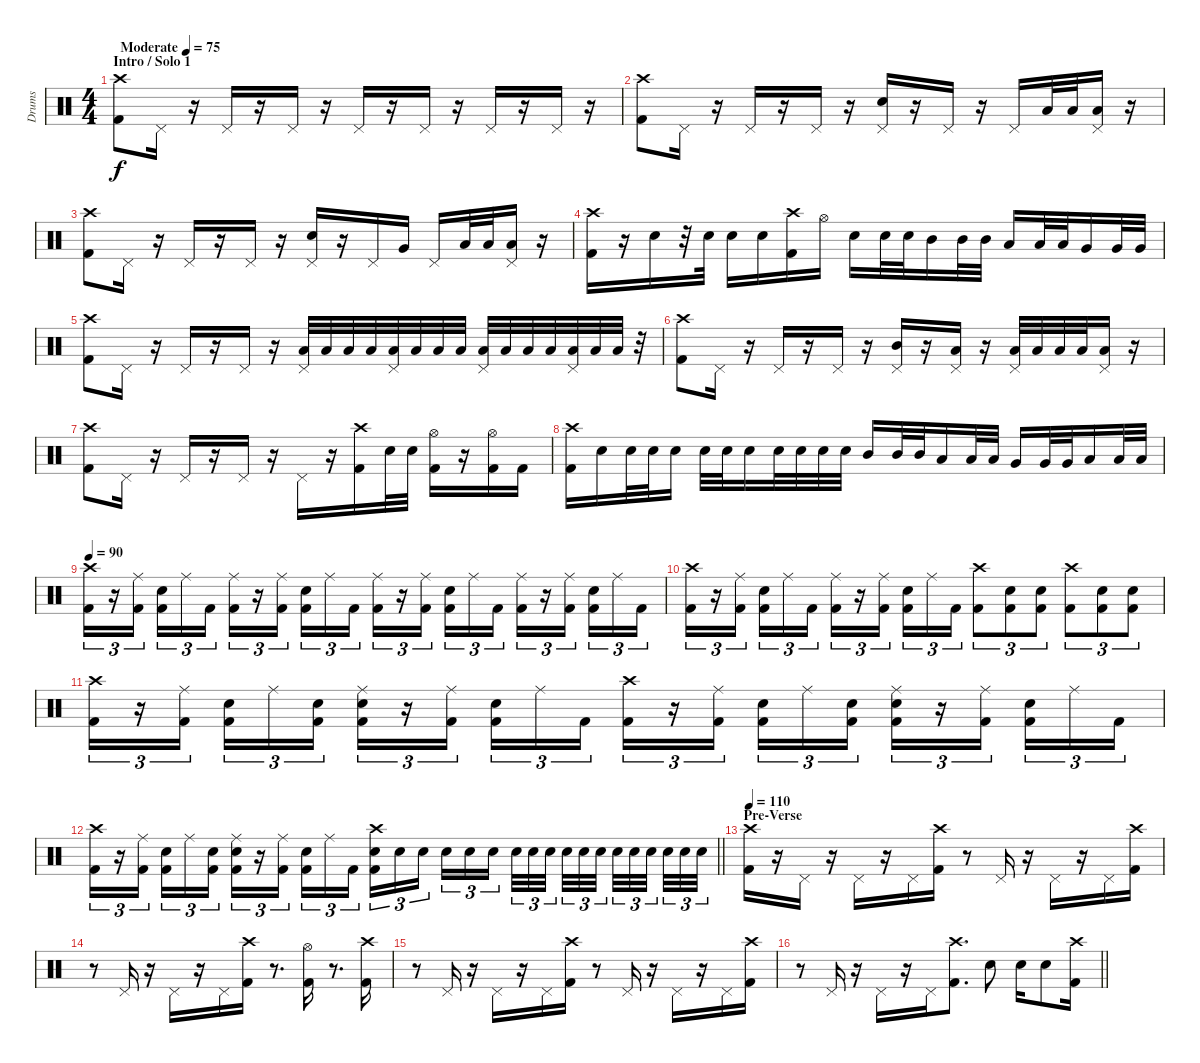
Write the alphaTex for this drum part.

\track ("Drums" "Drums") {instrument percussion}
\staff {score}
\articulation defaults
\ts (4 4)
\section ("" "Intro / Solo 1")
\tempo (75 "Moderate")
\clef neutral
\ks c
("Crash high (hit)" "Kick (hit) 2").8{dy f} "Pedal Hi-Hat (hit)".16 r.16 "Pedal Hi-Hat (hit)".16 r.16 "Pedal Hi-Hat (hit)".16 r.16 "Pedal Hi-Hat (hit)".16 r.16 "Pedal Hi-Hat (hit)".16 r.16 "Pedal Hi-Hat (hit)".16 r.16 "Pedal Hi-Hat (hit)".16 r.16 |
("Crash high (hit)" "Kick (hit) 2").8 "Pedal Hi-Hat (hit)".16 r.16 "Pedal Hi-Hat (hit)".16 r.16 "Pedal Hi-Hat (hit)".16 r.16 ("Pedal Hi-Hat (hit)" "Snare (hit) 2").16 r.16 "Pedal Hi-Hat (hit)".16 r.16 "Pedal Hi-Hat (hit)".16 "Low Tom (hit)".32 "Low Tom (hit)".32 ("Pedal Hi-Hat (hit)" "Low Tom (hit)").16 r.16 |
("Crash high (hit)" "Kick (hit) 2").8 "Pedal Hi-Hat (hit)".16 r.16 "Pedal Hi-Hat (hit)".16 r.16 "Pedal Hi-Hat (hit)".16 r.16 ("Pedal Hi-Hat (hit)" "Snare (hit) 2").16 r.16 "Pedal Hi-Hat (hit)".16 "Very Low Tom (hit)".16 "Pedal Hi-Hat (hit)".16 "Low Tom (hit)".32 "Low Tom (hit)".32 ("Pedal Hi-Hat (hit)" "Low Tom (hit)").16 r.16 |
("Crash high (hit)" "Kick (hit) 2").16 r.16 "Snare (hit) 2".16 r.32 "Snare (hit) 2".32 "Snare (hit) 2".16 "Snare (hit) 2".16 ("Crash high (hit)" "Kick (hit) 2").16 "Hi-Hat (open)".16 "Snare (hit) 2".16 "Snare (hit) 2".32 "Snare (hit) 2".32 "Mid Tom (hit)".16 "Mid Tom (hit)".32 "Mid Tom (hit)".32 "Low Tom (hit)".16 "Low Tom (hit)".32 "Low Tom (hit)".32 "Very Low Tom (hit)".16 "Very Low Tom (hit)".32 "Very Low Tom (hit)".32 |
("Crash high (hit)" "Kick (hit) 2").8 "Pedal Hi-Hat (hit)".16 r.16 "Pedal Hi-Hat (hit)".16 r.16 "Pedal Hi-Hat (hit)".16 r.16 ("Pedal Hi-Hat (hit)" "Low Tom (hit)").32 "Low Tom (hit)".32 "Low Tom (hit)".32 "Low Tom (hit)".32 ("Pedal Hi-Hat (hit)" "Low Tom (hit)").32 "Low Tom (hit)".32 "Low Tom (hit)".32 "Low Tom (hit)".32 ("Pedal Hi-Hat (hit)" "Low Tom (hit)").32 "Low Tom (hit)".32 "Low Tom (hit)".32 "Low Tom (hit)".32 ("Pedal Hi-Hat (hit)" "Low Tom (hit)").32 "Low Tom (hit)".32 "Low Tom (hit)".32 r.32 |
("Crash high (hit)" "Kick (hit) 2").8 "Pedal Hi-Hat (hit)".16 r.16 "Pedal Hi-Hat (hit)".16 r.16 "Pedal Hi-Hat (hit)".16 r.16 ("Pedal Hi-Hat (hit)" "Mid Tom (hit)").16 r.16 ("Pedal Hi-Hat (hit)" "Low Tom (hit)").16 r.16 ("Pedal Hi-Hat (hit)" "Low Tom (hit)").32 "Low Tom (hit)".32 "Low Tom (hit)".32 "Low Tom (hit)".32 ("Pedal Hi-Hat (hit)" "Low Tom (hit)").16 r.16 |
("Crash high (hit)" "Kick (hit) 2").8 "Pedal Hi-Hat (hit)".16 r.16 "Pedal Hi-Hat (hit)".16 r.16 "Pedal Hi-Hat (hit)".16 r.16 "Pedal Hi-Hat (hit)".16 r.16 ("Crash high (hit)" "Kick (hit) 2").16 "Snare (hit) 2".32 "Snare (hit) 2".32 ("Hi-Hat (open)" "Kick (hit) 2").16 r.16 ("Hi-Hat (open)" "Kick (hit) 2").16 "Kick (hit) 2".16 |
("Crash high (hit)" "Kick (hit) 2").16 "Snare (hit) 2".16 "Snare (hit) 2".32 "Snare (hit) 2".32 "Snare (hit) 2".16 "Snare (hit) 2".32 "Snare (hit) 2".32 "Snare (hit) 2".16 "Snare (hit) 2".32 "Snare (hit) 2".32 "Snare (hit) 2".32 "Snare (hit) 2".32 "Mid Tom (hit)".16 "Mid Tom (hit)".32 "Mid Tom (hit)".32 "Low Tom (hit)".16 "Low Tom (hit)".32 "Low Tom (hit)".32 "Very Low Tom (hit)".16 "Very Low Tom (hit)".32 "Very Low Tom (hit)".32 "Low Floor Tom (hit)".16 "Low Floor Tom (hit)".32 "Low Floor Tom (hit)".32 |
\tempo 90
("Crash high (hit)" "Kick (hit) 2").16{tu (3 2)} r.16{tu (3 2)} ("Ride (middle)" "Kick (hit) 2").16{tu (3 2) beam splitsecondary} ("Snare (hit) 2" "Kick (hit) 2").16{tu (3 2)} "Ride (middle)".16{tu (3 2)} "Kick (hit) 2".16{tu (3 2)} ("Ride (middle)" "Kick (hit) 2").16{tu (3 2)} r.16{tu (3 2)} ("Ride (middle)" "Kick (hit) 2").16{tu (3 2) beam splitsecondary} ("Snare (hit) 2" "Kick (hit) 2").16{tu (3 2)} "Ride (middle)".16{tu (3 2)} "Kick (hit) 2".16{tu (3 2)} ("Ride (middle)" "Kick (hit) 2").16{tu (3 2)} r.16{tu (3 2)} ("Ride (middle)" "Kick (hit) 2").16{tu (3 2) beam splitsecondary} ("Snare (hit) 2" "Kick (hit) 2").16{tu (3 2)} "Ride (middle)".16{tu (3 2)} "Kick (hit) 2".16{tu (3 2)} ("Ride (middle)" "Kick (hit) 2").16{tu (3 2)} r.16{tu (3 2)} ("Ride (middle)" "Kick (hit) 2").16{tu (3 2) beam splitsecondary} ("Snare (hit) 2" "Kick (hit) 2").16{tu (3 2)} "Ride (middle)".16{tu (3 2)} "Kick (hit) 2".16{tu (3 2)} |
("Crash high (hit)" "Kick (hit) 2").16{tu (3 2)} r.16{tu (3 2)} ("Ride (middle)" "Kick (hit) 2").16{tu (3 2) beam splitsecondary} ("Snare (hit) 2" "Kick (hit) 2").16{tu (3 2)} "Ride (middle)".16{tu (3 2)} "Kick (hit) 2".16{tu (3 2)} ("Ride (middle)" "Kick (hit) 2").16{tu (3 2)} r.16{tu (3 2)} ("Ride (middle)" "Kick (hit) 2").16{tu (3 2) beam splitsecondary} ("Snare (hit) 2" "Kick (hit) 2").16{tu (3 2)} "Ride (middle)".16{tu (3 2)} "Kick (hit) 2".16{tu (3 2)} ("Crash high (hit)" "Kick (hit) 2").8{tu (3 2)} ("Snare (hit) 2" "Kick (hit) 2").8{tu (3 2)} ("Snare (hit) 2" "Kick (hit) 2").8{tu (3 2)} ("Crash high (hit)" "Kick (hit) 2").8{tu (3 2)} ("Snare (hit) 2" "Kick (hit) 2").8{tu (3 2)} ("Snare (hit) 2" "Kick (hit) 2").8{tu (3 2)} |
("Crash high (hit)" "Kick (hit) 2").16{tu (3 2)} r.16{tu (3 2)} ("Ride (middle)" "Kick (hit) 2").16{tu (3 2) beam splitsecondary} ("Snare (hit) 2" "Kick (hit) 2").16{tu (3 2)} "Ride (middle)".16{tu (3 2)} ("Snare (hit) 2" "Kick (hit) 2").16{tu (3 2)} ("Ride (middle)" "Snare (hit) 2" "Kick (hit) 2").16{tu (3 2)} r.16{tu (3 2)} ("Ride (middle)" "Kick (hit) 2").16{tu (3 2) beam splitsecondary} ("Snare (hit) 2" "Kick (hit) 2").16{tu (3 2)} "Ride (middle)".16{tu (3 2)} "Kick (hit) 2".16{tu (3 2)} ("Crash high (hit)" "Kick (hit) 2").16{tu (3 2)} r.16{tu (3 2)} ("Ride (middle)" "Kick (hit) 2").16{tu (3 2) beam splitsecondary} ("Snare (hit) 2" "Kick (hit) 2").16{tu (3 2)} "Ride (middle)".16{tu (3 2)} ("Snare (hit) 2" "Kick (hit) 2").16{tu (3 2)} ("Ride (middle)" "Snare (hit) 2" "Kick (hit) 2").16{tu (3 2)} r.16{tu (3 2)} ("Ride (middle)" "Kick (hit) 2").16{tu (3 2) beam splitsecondary} ("Snare (hit) 2" "Kick (hit) 2").16{tu (3 2)} "Ride (middle)".16{tu (3 2)} "Kick (hit) 2".16{tu (3 2)} |
\barLineRight lightlight
("Crash high (hit)" "Kick (hit) 2").16{tu (3 2)} r.16{tu (3 2)} ("Ride (middle)" "Kick (hit) 2").16{tu (3 2) beam splitsecondary} ("Snare (hit) 2" "Kick (hit) 2").16{tu (3 2)} "Ride (middle)".16{tu (3 2)} ("Snare (hit) 2" "Kick (hit) 2").16{tu (3 2)} ("Ride (middle)" "Snare (hit) 2" "Kick (hit) 2").16{tu (3 2)} r.16{tu (3 2)} ("Ride (middle)" "Kick (hit) 2").16{tu (3 2) beam splitsecondary} ("Snare (hit) 2" "Kick (hit) 2").16{tu (3 2)} "Ride (middle)".16{tu (3 2)} "Kick (hit) 2".16{tu (3 2)} ("Crash high (hit)" "Snare (hit) 2" "Kick (hit) 2").16{tu (3 2)} "Snare (hit) 2".16{tu (3 2)} "Snare (hit) 2".16{tu (3 2) beam splitsecondary} "Snare (hit) 2".16{tu (3 2)} "Snare (hit) 2".16{tu (3 2)} "Snare (hit) 2".16{tu (3 2)} "Snare (hit) 2".32{tu (3 2)} "Snare (hit) 2".32{tu (3 2)} "Snare (hit) 2".32{tu (3 2) beam splitsecondary} "Snare (hit) 2".32{tu (3 2)} "Snare (hit) 2".32{tu (3 2)} "Snare (hit) 2".32{tu (3 2) beam splitsecondary} "Snare (hit) 2".32{tu (3 2)} "Snare (hit) 2".32{tu (3 2)} "Snare (hit) 2".32{tu (3 2) beam splitsecondary} "Snare (hit) 2".32{tu (3 2)} "Snare (hit) 2".32{tu (3 2)} "Snare (hit) 2".32{tu (3 2)} |
\section ("" "Pre-Verse")
\tempo 110
("Crash high (hit)" "Kick (hit) 2").16 r.16 "Pedal Hi-Hat (hit)".16 r.16 "Pedal Hi-Hat (hit)".16 r.16 "Pedal Hi-Hat (hit)".16 ("Crash high (hit)" "Kick (hit) 2").16 r.8 "Pedal Hi-Hat (hit)".16 r.16 "Pedal Hi-Hat (hit)".16 r.16 "Pedal Hi-Hat (hit)".16 ("Crash high (hit)" "Kick (hit) 2").16 |
r.8 "Pedal Hi-Hat (hit)".16 r.16 "Pedal Hi-Hat (hit)".16 r.16 "Pedal Hi-Hat (hit)".16 ("Crash high (hit)" "Kick (hit) 2").16 r.8{d} ("Hi-Hat (open)" "Kick (hit) 2").16 r.8{d} ("Crash high (hit)" "Kick (hit) 2").16 |
r.8 "Pedal Hi-Hat (hit)".16 r.16 "Pedal Hi-Hat (hit)".16 r.16 "Pedal Hi-Hat (hit)".16 ("Crash high (hit)" "Kick (hit) 2").16 r.8 "Pedal Hi-Hat (hit)".16 r.16 "Pedal Hi-Hat (hit)".16 r.16 "Pedal Hi-Hat (hit)".16 ("Crash high (hit)" "Kick (hit) 2").16 |
\barLineRight lightlight
r.8 "Pedal Hi-Hat (hit)".16 r.16 "Pedal Hi-Hat (hit)".16 r.16 "Pedal Hi-Hat (hit)".16 ("Crash high (hit)" "Kick (hit) 2").8{d} "Snare (hit) 2".8 "Snare (hit) 2".16 "Snare (hit) 2".8 ("Crash high (hit)" "Kick (hit) 2").16
